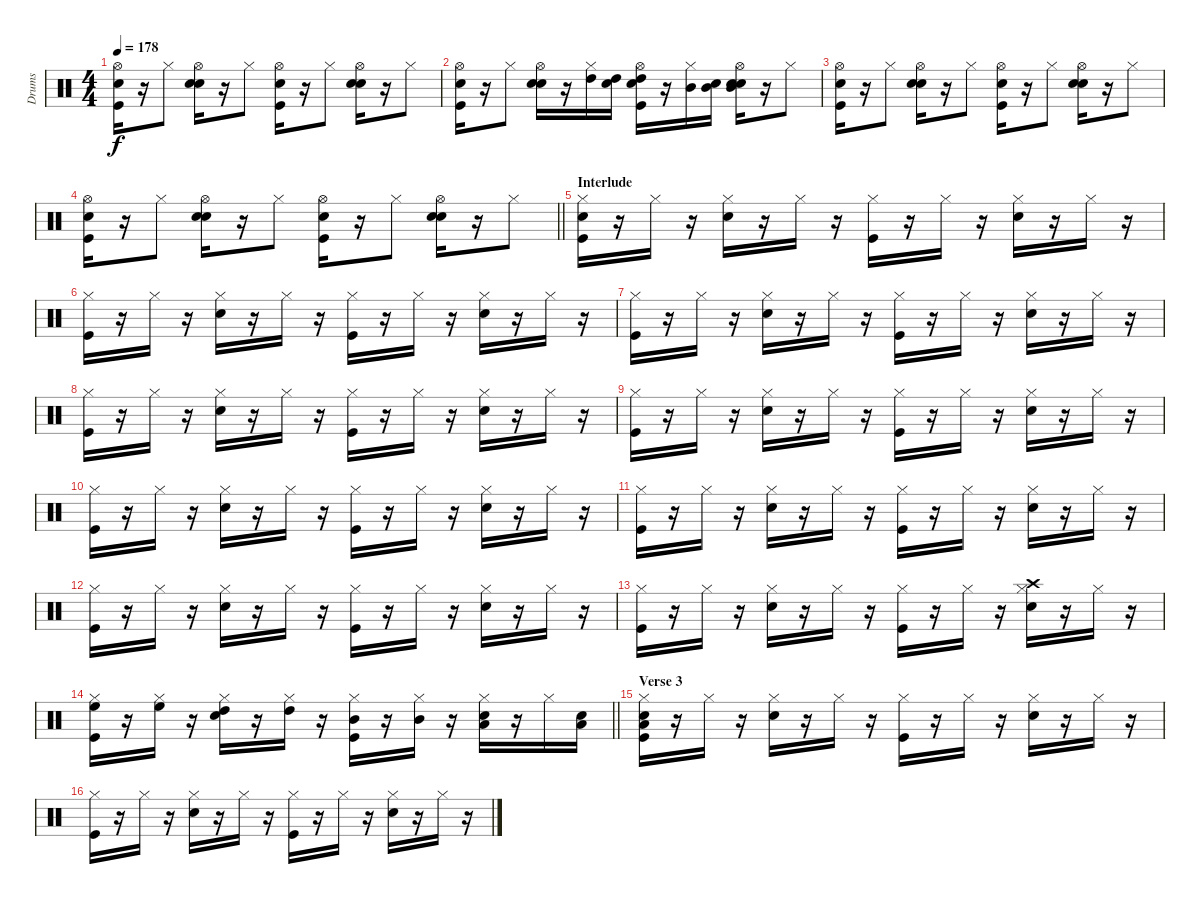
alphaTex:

\track ("Drums               " "Drums     ") {instrument percussion}
\staff {score}
\articulation defaults
\ts (4 4)
\tempo 178
\clef neutral
\ks c
("Snare (hit)" "Kick (hit)" "Hi-Hat (open)").16{dy f} r.16 "Hi-Hat (closed)".8 ("Snare (hit)" "Snare (hit) 2" "Hi-Hat (open)").16 r.16 "Hi-Hat (closed)".8 ("Snare (hit)" "Kick (hit)" "Hi-Hat (open)").16 r.16 "Hi-Hat (closed)".8 ("Snare (hit)" "Snare (hit) 2" "Hi-Hat (open)").16 r.16 "Hi-Hat (closed)".8 |
("Snare (hit)" "Kick (hit)" "Hi-Hat (open)").16 r.16 "Hi-Hat (closed)".8 ("Snare (hit)" "Snare (hit) 2" "Hi-Hat (open)").16 r.16 ("Hi-Hat (closed)" "High Tom (hit)").16 ("Snare (hit)" "High Tom (hit)").16 ("Snare (hit)" "Kick (hit)" "High Tom (hit)" "Hi-Hat (open)").16 r.16 ("Hi-Hat (closed)" "Mid Tom (hit)").16 ("Snare (hit)" "Mid Tom (hit)").16 ("Snare (hit)" "Snare (hit) 2" "Mid Tom (hit)" "Hi-Hat (open)").16 r.16 "Hi-Hat (closed)".8 |
("Snare (hit)" "Kick (hit)" "Hi-Hat (open)").16 r.16 "Hi-Hat (closed)".8 ("Snare (hit)" "Snare (hit) 2" "Hi-Hat (open)").16 r.16 "Hi-Hat (closed)".8 ("Snare (hit)" "Kick (hit)" "Hi-Hat (open)").16 r.16 "Hi-Hat (closed)".8 ("Snare (hit)" "Snare (hit) 2" "Hi-Hat (open)").16 r.16 "Hi-Hat (closed)".8 |
\barLineRight lightlight
("Snare (hit)" "Kick (hit)" "Hi-Hat (open)").16 r.16 "Hi-Hat (closed)".8 ("Snare (hit)" "Snare (hit) 2" "Hi-Hat (open)").16 r.16 "Hi-Hat (closed)".8 ("Snare (hit)" "Kick (hit)" "Hi-Hat (open)").16 r.16 "Hi-Hat (closed)".8 ("Snare (hit)" "Snare (hit) 2" "Hi-Hat (open)").16 r.16 "Hi-Hat (closed)".8 |
\section ("" "Interlude")
("Snare (hit)" "Kick (hit)" "Hi-Hat (closed)").16 r.16 "Hi-Hat (closed)".16 r.16 ("Snare (hit) 2" "Hi-Hat (closed)").16 r.16 "Hi-Hat (closed)".16 r.16 ("Kick (hit)" "Hi-Hat (closed)").16 r.16 "Hi-Hat (closed)".16 r.16 ("Snare (hit) 2" "Hi-Hat (closed)").16 r.16 "Hi-Hat (closed)".16 r.16 |
("Kick (hit)" "Hi-Hat (closed)").16 r.16 "Hi-Hat (closed)".16 r.16 ("Snare (hit) 2" "Hi-Hat (closed)").16 r.16 "Hi-Hat (closed)".16 r.16 ("Kick (hit)" "Hi-Hat (closed)").16 r.16 "Hi-Hat (closed)".16 r.16 ("Snare (hit) 2" "Hi-Hat (closed)").16 r.16 "Hi-Hat (closed)".16 r.16 |
("Kick (hit)" "Hi-Hat (closed)").16 r.16 "Hi-Hat (closed)".16 r.16 ("Snare (hit) 2" "Hi-Hat (closed)").16 r.16 "Hi-Hat (closed)".16 r.16 ("Kick (hit)" "Hi-Hat (closed)").16 r.16 "Hi-Hat (closed)".16 r.16 ("Snare (hit) 2" "Hi-Hat (closed)").16 r.16 "Hi-Hat (closed)".16 r.16 |
("Kick (hit)" "Hi-Hat (closed)").16 r.16 "Hi-Hat (closed)".16 r.16 ("Snare (hit) 2" "Hi-Hat (closed)").16 r.16 "Hi-Hat (closed)".16 r.16 ("Kick (hit)" "Hi-Hat (closed)").16 r.16 "Hi-Hat (closed)".16 r.16 ("Snare (hit) 2" "Hi-Hat (closed)").16 r.16 "Hi-Hat (closed)".16 r.16 |
("Kick (hit)" "Hi-Hat (closed)").16 r.16 "Hi-Hat (closed)".16 r.16 ("Snare (hit) 2" "Hi-Hat (closed)").16 r.16 "Hi-Hat (closed)".16 r.16 ("Kick (hit)" "Hi-Hat (closed)").16 r.16 "Hi-Hat (closed)".16 r.16 ("Snare (hit) 2" "Hi-Hat (closed)").16 r.16 "Hi-Hat (closed)".16 r.16 |
("Kick (hit)" "Hi-Hat (closed)").16 r.16 "Hi-Hat (closed)".16 r.16 ("Snare (hit) 2" "Hi-Hat (closed)").16 r.16 "Hi-Hat (closed)".16 r.16 ("Kick (hit)" "Hi-Hat (closed)").16 r.16 "Hi-Hat (closed)".16 r.16 ("Snare (hit) 2" "Hi-Hat (closed)").16 r.16 "Hi-Hat (closed)".16 r.16 |
("Kick (hit)" "Hi-Hat (closed)").16 r.16 "Hi-Hat (closed)".16 r.16 ("Snare (hit) 2" "Hi-Hat (closed)").16 r.16 "Hi-Hat (closed)".16 r.16 ("Kick (hit)" "Hi-Hat (closed)").16 r.16 "Hi-Hat (closed)".16 r.16 ("Snare (hit) 2" "Hi-Hat (closed)").16 r.16 "Hi-Hat (closed)".16 r.16 |
("Kick (hit)" "Hi-Hat (closed)").16 r.16 "Hi-Hat (closed)".16 r.16 ("Snare (hit) 2" "Hi-Hat (closed)").16 r.16 "Hi-Hat (closed)".16 r.16 ("Kick (hit)" "Hi-Hat (closed)").16 r.16 "Hi-Hat (closed)".16 r.16 ("Snare (hit) 2" "Hi-Hat (closed)").16 r.16 "Hi-Hat (closed)".16 r.16 |
("Kick (hit)" "Hi-Hat (closed)").16 r.16 "Hi-Hat (closed)".16 r.16 ("Snare (hit) 2" "Hi-Hat (closed)").16 r.16 "Hi-Hat (closed)".16 r.16 ("Kick (hit)" "Hi-Hat (closed)").16 r.16 "Hi-Hat (closed)".16 r.16 ("Snare (hit) 2" "Hi-Hat (closed)" "Crash high (hit)").16 r.16 "Hi-Hat (closed)".16 r.16 |
\barLineRight lightlight
("Kick (hit)" "Hi-Hat (closed)" "High Floor Tom (hit)").16 r.16 ("Hi-Hat (closed)" "High Floor Tom (hit)").16 r.16 ("Snare (hit) 2" "Hi-Hat (closed)" "High Tom (hit)").16 r.16 ("Hi-Hat (closed)" "High Tom (hit)").16 r.16 ("Kick (hit)" "Hi-Hat (closed)" "Mid Tom (hit)").16 r.16 ("Hi-Hat (closed)" "Mid Tom (hit)").16 r.16 ("Snare (hit) 2" "Hi-Hat (closed)" "Low Tom (hit)").16 r.16 "Hi-Hat (closed)".16 ("Snare (hit)" "Low Tom (hit)").16 |
\section ("" "Verse 3")
("Snare (hit)" "Kick (hit)" "Hi-Hat (closed)" "Low Tom (hit)").16 r.16 "Hi-Hat (closed)".16 r.16 ("Snare (hit) 2" "Hi-Hat (closed)").16 r.16 "Hi-Hat (closed)".16 r.16 ("Kick (hit)" "Hi-Hat (closed)").16 r.16 "Hi-Hat (closed)".16 r.16 ("Snare (hit) 2" "Hi-Hat (closed)").16 r.16 "Hi-Hat (closed)".16 r.16 |
("Kick (hit)" "Hi-Hat (closed)").16 r.16 "Hi-Hat (closed)".16 r.16 ("Snare (hit) 2" "Hi-Hat (closed)").16 r.16 "Hi-Hat (closed)".16 r.16 ("Kick (hit)" "Hi-Hat (closed)").16 r.16 "Hi-Hat (closed)".16 r.16 ("Snare (hit) 2" "Hi-Hat (closed)").16 r.16 "Hi-Hat (closed)".16 r.16
